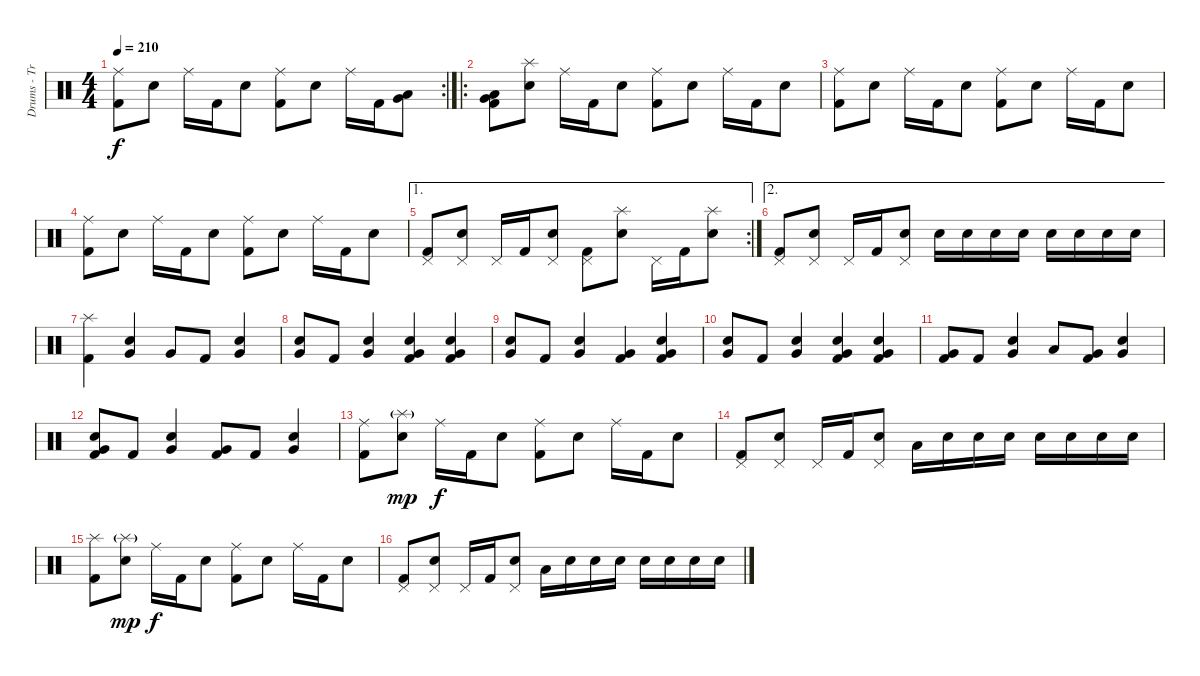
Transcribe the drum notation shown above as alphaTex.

\track ("Drums - Travis Barker" "Drums - Tr") {instrument percussion}
\staff {score}
\articulation defaults
\rc 2
\ts (4 4)
\tempo 210
\clef neutral
\ks c
("Ride (middle)" "Kick (hit) 2").8{dy f} "Electric Snare (hit)".8 "Ride (middle)".16 "Kick (hit) 2".16 "Electric Snare (hit)".8 ("Ride (middle)" "Kick (hit) 2").8 "Electric Snare (hit)".8 "Ride (middle)".16 "Kick (hit) 2".16 ("Low Tom (hit)" "Very Low Tom (hit)").8 |
\ro
("Low Tom (hit)" "Very Low Tom (hit)" "Kick (hit) 2").8 ("Splash (hit)" "Electric Snare (hit)").8 "Ride (middle)".16 "Kick (hit) 2".16 "Electric Snare (hit)".8 ("Ride (middle)" "Kick (hit) 2").8 "Electric Snare (hit)".8 "Ride (middle)".16 "Kick (hit) 2".16 "Electric Snare (hit)".8 |
("Ride (middle)" "Kick (hit) 2").8 "Electric Snare (hit)".8 "Ride (middle)".16 "Kick (hit) 2".16 "Electric Snare (hit)".8 ("Ride (middle)" "Kick (hit) 2").8 "Electric Snare (hit)".8 "Ride (middle)".16 "Kick (hit) 2".16 "Electric Snare (hit)".8 |
("Ride (middle)" "Kick (hit) 2").8 "Electric Snare (hit)".8 "Ride (middle)".16 "Kick (hit) 2".16 "Electric Snare (hit)".8 ("Ride (middle)" "Kick (hit) 2").8 "Electric Snare (hit)".8 "Ride (middle)".16 "Kick (hit) 2".16 "Electric Snare (hit)".8 |
\ae 1
\rc 2
("Pedal Hi-Hat (hit)" "Kick (hit) 2").8 ("Pedal Hi-Hat (hit)" "Electric Snare (hit)").8 "Pedal Hi-Hat (hit)".16 "Kick (hit) 2".16 ("Pedal Hi-Hat (hit)" "Electric Snare (hit)").8 ("Pedal Hi-Hat (hit)" "Kick (hit) 2").8 ("Splash (hit)" "Electric Snare (hit)").8 "Pedal Hi-Hat (hit)".16 "Kick (hit) 2".16 ("Splash (hit)" "Electric Snare (hit)").8 |
\ae 2
("Pedal Hi-Hat (hit)" "Kick (hit) 2").8 ("Pedal Hi-Hat (hit)" "Electric Snare (hit)").8 "Pedal Hi-Hat (hit)".16 "Kick (hit) 2".16 ("Pedal Hi-Hat (hit)" "Electric Snare (hit)").8 "Electric Snare (hit)".16 "Electric Snare (hit)".16 "Electric Snare (hit)".16 "Electric Snare (hit)".16 "Electric Snare (hit)".16 "Electric Snare (hit)".16 "Electric Snare (hit)".16 "Electric Snare (hit)".16 |
("Splash (hit)" "Kick (hit) 2").4 ("Very Low Tom (hit)" "Electric Snare (hit)").4 "Very Low Tom (hit)".8 "Kick (hit) 2".8 ("Very Low Tom (hit)" "Electric Snare (hit)").4 |
("Very Low Tom (hit)" "Electric Snare (hit)").8 "Kick (hit) 2".8 ("Very Low Tom (hit)" "Electric Snare (hit)").4 ("Very Low Tom (hit)" "Electric Snare (hit)" "Kick (hit) 2").4 ("Very Low Tom (hit)" "Electric Snare (hit)" "Kick (hit) 2").4 |
("Very Low Tom (hit)" "Electric Snare (hit)").8 "Kick (hit) 2".8 ("Very Low Tom (hit)" "Electric Snare (hit)").4 ("Very Low Tom (hit)" "Kick (hit) 2").4 ("Very Low Tom (hit)" "Electric Snare (hit)" "Kick (hit) 2").4 |
("Very Low Tom (hit)" "Electric Snare (hit)").8 "Kick (hit) 2".8 ("Very Low Tom (hit)" "Electric Snare (hit)").4 ("Very Low Tom (hit)" "Electric Snare (hit)" "Kick (hit) 2").4 ("Very Low Tom (hit)" "Electric Snare (hit)" "Kick (hit) 2").4 |
("Very Low Tom (hit)" "Kick (hit) 2").8 "Kick (hit) 2".8 ("Very Low Tom (hit)" "Electric Snare (hit)").4 "Low Tom (hit)".8 ("Very Low Tom (hit)" "Kick (hit) 2").8 ("Very Low Tom (hit)" "Electric Snare (hit)").4 |
("Very Low Tom (hit)" "Electric Snare (hit)" "Kick (hit) 2").8 "Kick (hit) 2".8 ("Very Low Tom (hit)" "Electric Snare (hit)").4 ("Very Low Tom (hit)" "Kick (hit) 2").8 "Kick (hit) 2".8 ("Very Low Tom (hit)" "Electric Snare (hit)").4 |
("Ride (middle)" "Kick (hit) 2").8 ("Splash (hit)"{g} "Electric Snare (hit)").8{dy mp} "Ride (middle)".16{dy f} "Kick (hit) 2".16 "Electric Snare (hit)".8 ("Ride (middle)" "Kick (hit) 2").8 "Electric Snare (hit)".8 "Ride (middle)".16 "Kick (hit) 2".16 "Electric Snare (hit)".8 |
("Pedal Hi-Hat (hit)" "Kick (hit) 2").8 ("Pedal Hi-Hat (hit)" "Electric Snare (hit)").8 "Pedal Hi-Hat (hit)".16 "Kick (hit) 2".16 ("Pedal Hi-Hat (hit)" "Electric Snare (hit)").8 "Low Tom (hit)".16 "Electric Snare (hit)".16 "Electric Snare (hit)".16 "Electric Snare (hit)".16 "Electric Snare (hit)".16 "Electric Snare (hit)".16 "Electric Snare (hit)".16 "Electric Snare (hit)".16 |
("Splash (hit)" "Kick (hit) 2").8 ("Splash (hit)"{g} "Electric Snare (hit)").8{dy mp} "Ride (middle)".16{dy f} "Kick (hit) 2".16 "Electric Snare (hit)".8 ("Ride (middle)" "Kick (hit) 2").8 "Electric Snare (hit)".8 "Ride (middle)".16 "Kick (hit) 2".16 "Electric Snare (hit)".8 |
("Pedal Hi-Hat (hit)" "Kick (hit) 2").8 ("Pedal Hi-Hat (hit)" "Electric Snare (hit)").8 "Pedal Hi-Hat (hit)".16 "Kick (hit) 2".16 ("Pedal Hi-Hat (hit)" "Electric Snare (hit)").8 "Low Tom (hit)".16 "Electric Snare (hit)".16 "Electric Snare (hit)".16 "Electric Snare (hit)".16 "Electric Snare (hit)".16 "Electric Snare (hit)".16 "Electric Snare (hit)".16 "Electric Snare (hit)".16
